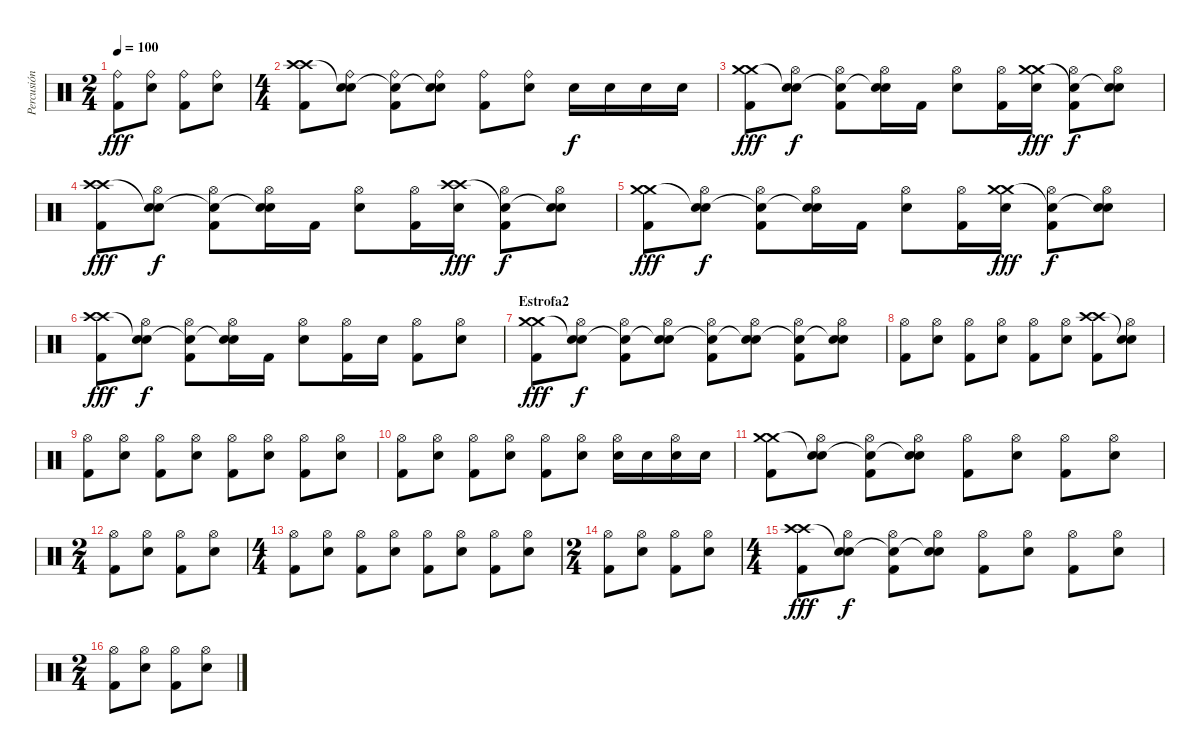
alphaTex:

\track ("Percusión" "Percusión") {instrument percussion}
\staff {score}
\articulation defaults
\ts (2 4)
\tempo 100
\clef neutral
\ks c
("Ride (bell)" "Kick (hit) 2").8{dy fff} ("Ride (bell)" "Snare (hit) 2").8 ("Ride (bell)" "Kick (hit) 2").8 ("Ride (bell)" "Snare (hit) 2").8 |
\ts (4 4)
("Crash high (hit)" "Kick (hit) 2" "Crash high (hit)").8 ("Ride (bell)" "Snare (hit) 2" "Snare (hit)"{t}).8 ("Ride (bell)" "Kick (hit) 2" "Snare (hit)"{t}).8 ("Ride (bell)" "Snare (hit) 2" "Snare (hit)"{t}).8 ("Ride (bell)" "Kick (hit) 2").8 ("Ride (bell)" "Snare (hit) 2").8 "Snare (hit) 2".16{dy f} "Snare (hit) 2".16 "Snare (hit) 2".16 "Snare (hit) 2".16 |
("Crash medium (hit)" "Kick (hit) 2" "Crash medium (hit)").8{dy fff} ("Hi-Hat (open)" "Snare (hit) 2" "Snare (hit)"{t}).8{dy f} ("Hi-Hat (open)" "Kick (hit) 2" "Snare (hit)"{t}).8 ("Hi-Hat (open)" "Snare (hit) 2" "Snare (hit)"{t}).16 "Kick (hit) 2".16 ("Hi-Hat (open)" "Snare (hit) 2").8 ("Hi-Hat (open)" "Kick (hit) 2").16 ("Crash medium (hit)" "Snare (hit) 2" "Crash medium (hit)").16{dy fff} ("Hi-Hat (open)" "Kick (hit) 2" "Snare (hit)"{t}).8{dy f} ("Hi-Hat (open)" "Snare (hit) 2" "Snare (hit)"{t}).8 |
("Crash high (hit)" "Kick (hit) 2" "Crash high (hit)").8{dy fff} ("Hi-Hat (open)" "Snare (hit) 2" "Snare (hit)"{t}).8{dy f} ("Hi-Hat (open)" "Kick (hit) 2" "Snare (hit)"{t}).8 ("Hi-Hat (open)" "Snare (hit) 2" "Snare (hit)"{t}).16 "Kick (hit) 2".16 ("Hi-Hat (open)" "Snare (hit) 2").8 ("Hi-Hat (open)" "Kick (hit) 2").16 ("Crash high (hit)" "Snare (hit) 2" "Crash high (hit)").16{dy fff} ("Hi-Hat (open)" "Kick (hit) 2" "Snare (hit)"{t}).8{dy f} ("Hi-Hat (open)" "Snare (hit) 2" "Snare (hit)"{t}).8 |
("Crash medium (hit)" "Kick (hit) 2" "Crash medium (hit)").8{dy fff} ("Hi-Hat (open)" "Snare (hit) 2" "Snare (hit)"{t}).8{dy f} ("Hi-Hat (open)" "Kick (hit) 2" "Snare (hit)"{t}).8 ("Hi-Hat (open)" "Snare (hit) 2" "Snare (hit)"{t}).16 "Kick (hit) 2".16 ("Hi-Hat (open)" "Snare (hit) 2").8 ("Hi-Hat (open)" "Kick (hit) 2").16 ("Crash medium (hit)" "Snare (hit) 2" "Crash medium (hit)").16{dy fff} ("Hi-Hat (open)" "Kick (hit) 2" "Snare (hit)"{t}).8{dy f} ("Hi-Hat (open)" "Snare (hit) 2" "Snare (hit)"{t}).8 |
("Crash high (hit)" "Kick (hit) 2" "Crash high (hit)").8{dy fff} ("Hi-Hat (open)" "Snare (hit) 2" "Snare (hit)"{t}).8{dy f} ("Hi-Hat (open)" "Kick (hit) 2" "Snare (hit)"{t}).8 ("Hi-Hat (open)" "Snare (hit) 2" "Snare (hit)"{t}).16 "Kick (hit) 2".16 ("Hi-Hat (open)" "Snare (hit) 2").8 ("Hi-Hat (open)" "Kick (hit) 2").16 "Snare (hit) 2".16 ("Hi-Hat (open)" "Kick (hit) 2").8 ("Hi-Hat (open)" "Snare (hit) 2").8 |
\section ("" "Estrofa2")
("Crash medium (hit)" "Kick (hit) 2" "Crash medium (hit)").8{dy fff} ("Hi-Hat (open)" "Snare (hit) 2" "Snare (hit)"{t}).8{dy f} ("Hi-Hat (open)" "Kick (hit) 2" "Snare (hit)"{t}).8 ("Hi-Hat (open)" "Snare (hit) 2" "Snare (hit)"{t}).8 ("Hi-Hat (open)" "Kick (hit) 2" "Snare (hit)"{t}).8 ("Hi-Hat (open)" "Snare (hit) 2" "Snare (hit)"{t}).8 ("Hi-Hat (open)" "Kick (hit) 2" "Snare (hit)"{t}).8 ("Hi-Hat (open)" "Snare (hit) 2" "Snare (hit)"{t}).8 |
("Hi-Hat (open)" "Kick (hit) 2").8 ("Hi-Hat (open)" "Snare (hit) 2").8 ("Hi-Hat (open)" "Kick (hit) 2").8 ("Hi-Hat (open)" "Snare (hit) 2").8 ("Hi-Hat (open)" "Kick (hit) 2").8 ("Hi-Hat (open)" "Snare (hit) 2").8 ("Crash high (hit)" "Kick (hit) 2" "Crash high (hit)").8 ("Hi-Hat (open)" "Snare (hit) 2" "Snare (hit)"{t}).8 |
("Hi-Hat (open)" "Kick (hit) 2").8 ("Hi-Hat (open)" "Snare (hit) 2").8 ("Hi-Hat (open)" "Kick (hit) 2").8 ("Hi-Hat (open)" "Snare (hit) 2").8 ("Hi-Hat (open)" "Kick (hit) 2").8 ("Hi-Hat (open)" "Snare (hit) 2").8 ("Hi-Hat (open)" "Kick (hit) 2").8 ("Hi-Hat (open)" "Snare (hit) 2").8 |
("Hi-Hat (open)" "Kick (hit) 2").8 ("Hi-Hat (open)" "Snare (hit) 2").8 ("Hi-Hat (open)" "Kick (hit) 2").8 ("Hi-Hat (open)" "Snare (hit) 2").8 ("Hi-Hat (open)" "Kick (hit) 2").8 ("Hi-Hat (open)" "Snare (hit) 2").8 ("Hi-Hat (open)" "Snare (hit) 2").16 "Snare (hit) 2".16 ("Hi-Hat (open)" "Snare (hit) 2").16 "Snare (hit) 2".16 |
("Crash medium (hit)" "Kick (hit) 2" "Crash medium (hit)").8 ("Hi-Hat (open)" "Snare (hit) 2" "Snare (hit)"{t}).8 ("Hi-Hat (open)" "Kick (hit) 2" "Snare (hit)"{t}).8 ("Hi-Hat (open)" "Snare (hit) 2" "Snare (hit)"{t}).8 ("Hi-Hat (open)" "Kick (hit) 2").8 ("Hi-Hat (open)" "Snare (hit) 2").8 ("Hi-Hat (open)" "Kick (hit) 2").8 ("Hi-Hat (open)" "Snare (hit) 2").8 |
\ts (2 4)
("Hi-Hat (open)" "Kick (hit) 2").8 ("Hi-Hat (open)" "Snare (hit) 2").8 ("Hi-Hat (open)" "Kick (hit) 2").8 ("Hi-Hat (open)" "Snare (hit) 2").8 |
\ts (4 4)
("Hi-Hat (open)" "Kick (hit) 2").8 ("Hi-Hat (open)" "Snare (hit) 2").8 ("Hi-Hat (open)" "Kick (hit) 2").8 ("Hi-Hat (open)" "Snare (hit) 2").8 ("Hi-Hat (open)" "Kick (hit) 2").8 ("Hi-Hat (open)" "Snare (hit) 2").8 ("Hi-Hat (open)" "Kick (hit) 2").8 ("Hi-Hat (open)" "Snare (hit) 2").8 |
\ts (2 4)
("Hi-Hat (open)" "Kick (hit) 2").8 ("Hi-Hat (open)" "Snare (hit) 2").8 ("Hi-Hat (open)" "Kick (hit) 2").8 ("Hi-Hat (open)" "Snare (hit) 2").8 |
\ts (4 4)
("Crash high (hit)" "Kick (hit) 2" "Crash high (hit)").8{dy fff} ("Hi-Hat (open)" "Snare (hit) 2" "Snare (hit)"{t}).8{dy f} ("Hi-Hat (open)" "Kick (hit) 2" "Snare (hit)"{t}).8 ("Hi-Hat (open)" "Snare (hit) 2" "Snare (hit)"{t}).8 ("Hi-Hat (open)" "Kick (hit) 2").8 ("Hi-Hat (open)" "Snare (hit) 2").8 ("Hi-Hat (open)" "Kick (hit) 2").8 ("Hi-Hat (open)" "Snare (hit) 2").8 |
\ts (2 4)
("Hi-Hat (open)" "Kick (hit) 2").8 ("Hi-Hat (open)" "Snare (hit) 2").8 ("Hi-Hat (open)" "Kick (hit) 2").8 ("Hi-Hat (open)" "Snare (hit) 2").8
